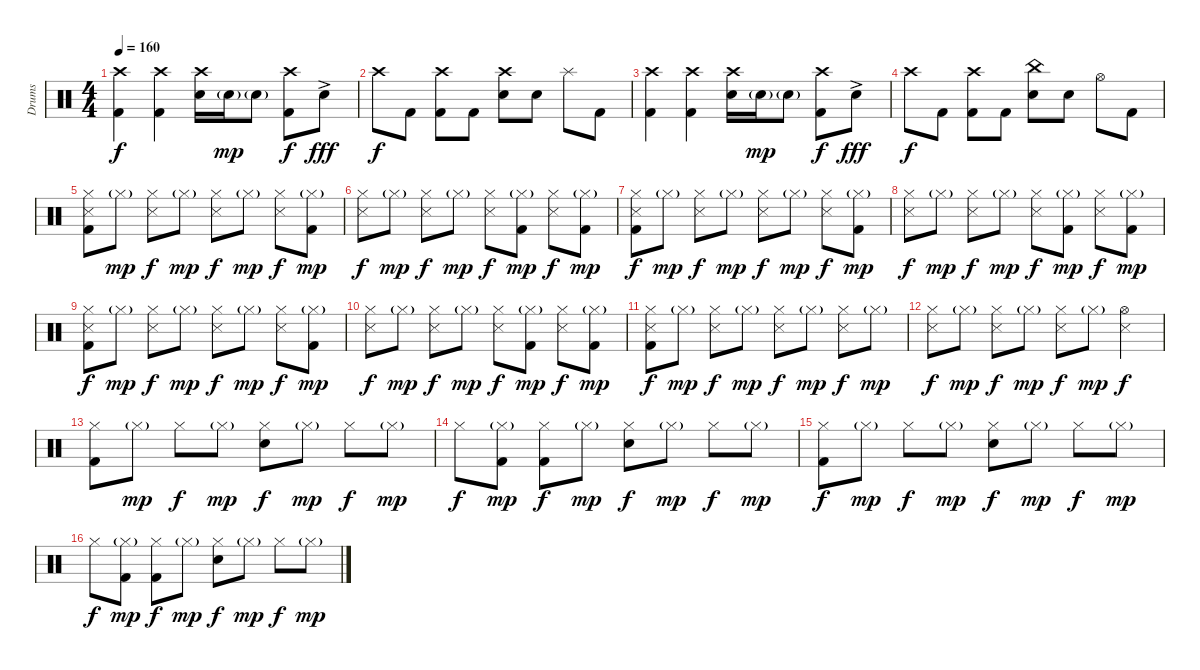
\track ("Drums" "Drums") {instrument percussion}
\staff {score}
\articulation defaults
\ts (4 4)
\tempo 160
\clef neutral
\ks c
("Crash high (hit)" "Kick (hit) 2").4{dy f} ("Crash high (hit)" "Kick (hit) 2").4 ("Crash high (hit)" "Snare (hit) 2").16 "Snare (hit) 2"{g}.16{dy mp} "Snare (hit) 2"{g}.8 ("Crash high (hit)" "Kick (hit) 2").8{dy f} "Snare (hit) 2"{ac}.8{dy fff} |
"Crash high (hit)".8{dy f} "Kick (hit) 2".8 ("Crash high (hit)" "Kick (hit) 2").8 "Kick (hit) 2".8 ("Crash high (hit)" "Snare (hit) 2").8 "Snare (hit) 2".8 "Splash (hit)".8 "Kick (hit) 2".8 |
("Crash high (hit)" "Kick (hit) 2").4 ("Crash high (hit)" "Kick (hit) 2").4 ("Crash high (hit)" "Snare (hit) 2").16 "Snare (hit) 2"{g}.16{dy mp} "Snare (hit) 2"{g}.8 ("Crash high (hit)" "Kick (hit) 2").8{dy f} "Snare (hit) 2"{ac}.8{dy fff} |
"Crash high (hit)".8{dy f} "Kick (hit) 2".8 ("Crash high (hit)" "Kick (hit) 2").8 "Kick (hit) 2".8 ("China (hit)" "Snare (hit) 2").8 "Snare (hit) 2".8 "Hi-Hat (open)".8 "Kick (hit) 2".8 |
("Hi-Hat (closed)" "Snare (side stick) 3" "Kick (hit) 2").8 "Hi-Hat (closed)"{g}.8{dy mp} ("Hi-Hat (closed)" "Snare (side stick) 3").8{dy f} "Hi-Hat (closed)"{g}.8{dy mp} ("Hi-Hat (closed)" "Snare (side stick) 3").8{dy f} "Hi-Hat (closed)"{g}.8{dy mp} ("Hi-Hat (closed)" "Snare (side stick) 3").8{dy f} ("Hi-Hat (closed)"{g} "Kick (hit) 2").8{dy mp} |
("Hi-Hat (closed)" "Snare (side stick) 3").8{dy f} "Hi-Hat (closed)"{g}.8{dy mp} ("Hi-Hat (closed)" "Snare (side stick) 3").8{dy f} "Hi-Hat (closed)"{g}.8{dy mp} ("Hi-Hat (closed)" "Snare (side stick) 3").8{dy f} ("Hi-Hat (closed)"{g} "Kick (hit) 2").8{dy mp} ("Hi-Hat (closed)" "Snare (side stick) 3").8{dy f} ("Hi-Hat (closed)"{g} "Kick (hit) 2").8{dy mp} |
("Hi-Hat (closed)" "Snare (side stick) 3" "Kick (hit) 2").8{dy f} "Hi-Hat (closed)"{g}.8{dy mp} ("Hi-Hat (closed)" "Snare (side stick) 3").8{dy f} "Hi-Hat (closed)"{g}.8{dy mp} ("Hi-Hat (closed)" "Snare (side stick) 3").8{dy f} "Hi-Hat (closed)"{g}.8{dy mp} ("Hi-Hat (closed)" "Snare (side stick) 3").8{dy f} ("Hi-Hat (closed)"{g} "Kick (hit) 2").8{dy mp} |
("Hi-Hat (closed)" "Snare (side stick) 3").8{dy f} "Hi-Hat (closed)"{g}.8{dy mp} ("Hi-Hat (closed)" "Snare (side stick) 3").8{dy f} "Hi-Hat (closed)"{g}.8{dy mp} ("Hi-Hat (closed)" "Snare (side stick) 3").8{dy f} ("Hi-Hat (closed)"{g} "Kick (hit) 2").8{dy mp} ("Hi-Hat (closed)" "Snare (side stick) 3").8{dy f} ("Hi-Hat (closed)"{g} "Kick (hit) 2").8{dy mp} |
("Hi-Hat (closed)" "Snare (side stick) 3" "Kick (hit) 2").8{dy f} "Hi-Hat (closed)"{g}.8{dy mp} ("Hi-Hat (closed)" "Snare (side stick) 3").8{dy f} "Hi-Hat (closed)"{g}.8{dy mp} ("Hi-Hat (closed)" "Snare (side stick) 3").8{dy f} "Hi-Hat (closed)"{g}.8{dy mp} ("Hi-Hat (closed)" "Snare (side stick) 3").8{dy f} ("Hi-Hat (closed)"{g} "Kick (hit) 2").8{dy mp} |
("Hi-Hat (closed)" "Snare (side stick) 3").8{dy f} "Hi-Hat (closed)"{g}.8{dy mp} ("Hi-Hat (closed)" "Snare (side stick) 3").8{dy f} "Hi-Hat (closed)"{g}.8{dy mp} ("Hi-Hat (closed)" "Snare (side stick) 3").8{dy f} ("Hi-Hat (closed)"{g} "Kick (hit) 2").8{dy mp} ("Hi-Hat (closed)" "Snare (side stick) 3").8{dy f} ("Hi-Hat (closed)"{g} "Kick (hit) 2").8{dy mp} |
("Hi-Hat (closed)" "Snare (side stick) 3" "Kick (hit) 2").8{dy f} "Hi-Hat (closed)"{g}.8{dy mp} ("Hi-Hat (closed)" "Snare (side stick) 3").8{dy f} "Hi-Hat (closed)"{g}.8{dy mp} ("Hi-Hat (closed)" "Snare (side stick) 3").8{dy f} "Hi-Hat (closed)"{g}.8{dy mp} ("Hi-Hat (closed)" "Snare (side stick) 3").8{dy f} "Hi-Hat (closed)"{g}.8{dy mp} |
("Hi-Hat (closed)" "Snare (side stick) 3").8{dy f} "Hi-Hat (closed)"{g}.8{dy mp} ("Hi-Hat (closed)" "Snare (side stick) 3").8{dy f} "Hi-Hat (closed)"{g}.8{dy mp} ("Hi-Hat (closed)" "Snare (side stick) 3").8{dy f} "Hi-Hat (closed)"{g}.8{dy mp} ("Hi-Hat (open)" "Snare (side stick) 3").4{dy f} |
("Hi-Hat (closed)" "Kick (hit) 2").8 "Hi-Hat (closed)"{g}.8{dy mp} "Hi-Hat (closed)".8{dy f} "Hi-Hat (closed)"{g}.8{dy mp} ("Hi-Hat (closed)" "Snare (hit) 2").8{dy f} "Hi-Hat (closed)"{g}.8{dy mp} "Hi-Hat (closed)".8{dy f} "Hi-Hat (closed)"{g}.8{dy mp} |
"Hi-Hat (closed)".8{dy f} ("Hi-Hat (closed)"{g} "Kick (hit) 2").8{dy mp} ("Hi-Hat (closed)" "Kick (hit) 2").8{dy f} "Hi-Hat (closed)"{g}.8{dy mp} ("Hi-Hat (closed)" "Snare (hit) 2").8{dy f} "Hi-Hat (closed)"{g}.8{dy mp} "Hi-Hat (closed)".8{dy f} "Hi-Hat (closed)"{g}.8{dy mp} |
("Hi-Hat (closed)" "Kick (hit) 2").8{dy f} "Hi-Hat (closed)"{g}.8{dy mp} "Hi-Hat (closed)".8{dy f} "Hi-Hat (closed)"{g}.8{dy mp} ("Hi-Hat (closed)" "Snare (hit) 2").8{dy f} "Hi-Hat (closed)"{g}.8{dy mp} "Hi-Hat (closed)".8{dy f} "Hi-Hat (closed)"{g}.8{dy mp} |
"Hi-Hat (closed)".8{dy f} ("Hi-Hat (closed)"{g} "Kick (hit) 2").8{dy mp} ("Hi-Hat (closed)" "Kick (hit) 2").8{dy f} "Hi-Hat (closed)"{g}.8{dy mp} ("Hi-Hat (closed)" "Snare (hit) 2").8{dy f} "Hi-Hat (closed)"{g}.8{dy mp} "Hi-Hat (closed)".8{dy f} "Hi-Hat (closed)"{g}.8{dy mp}
